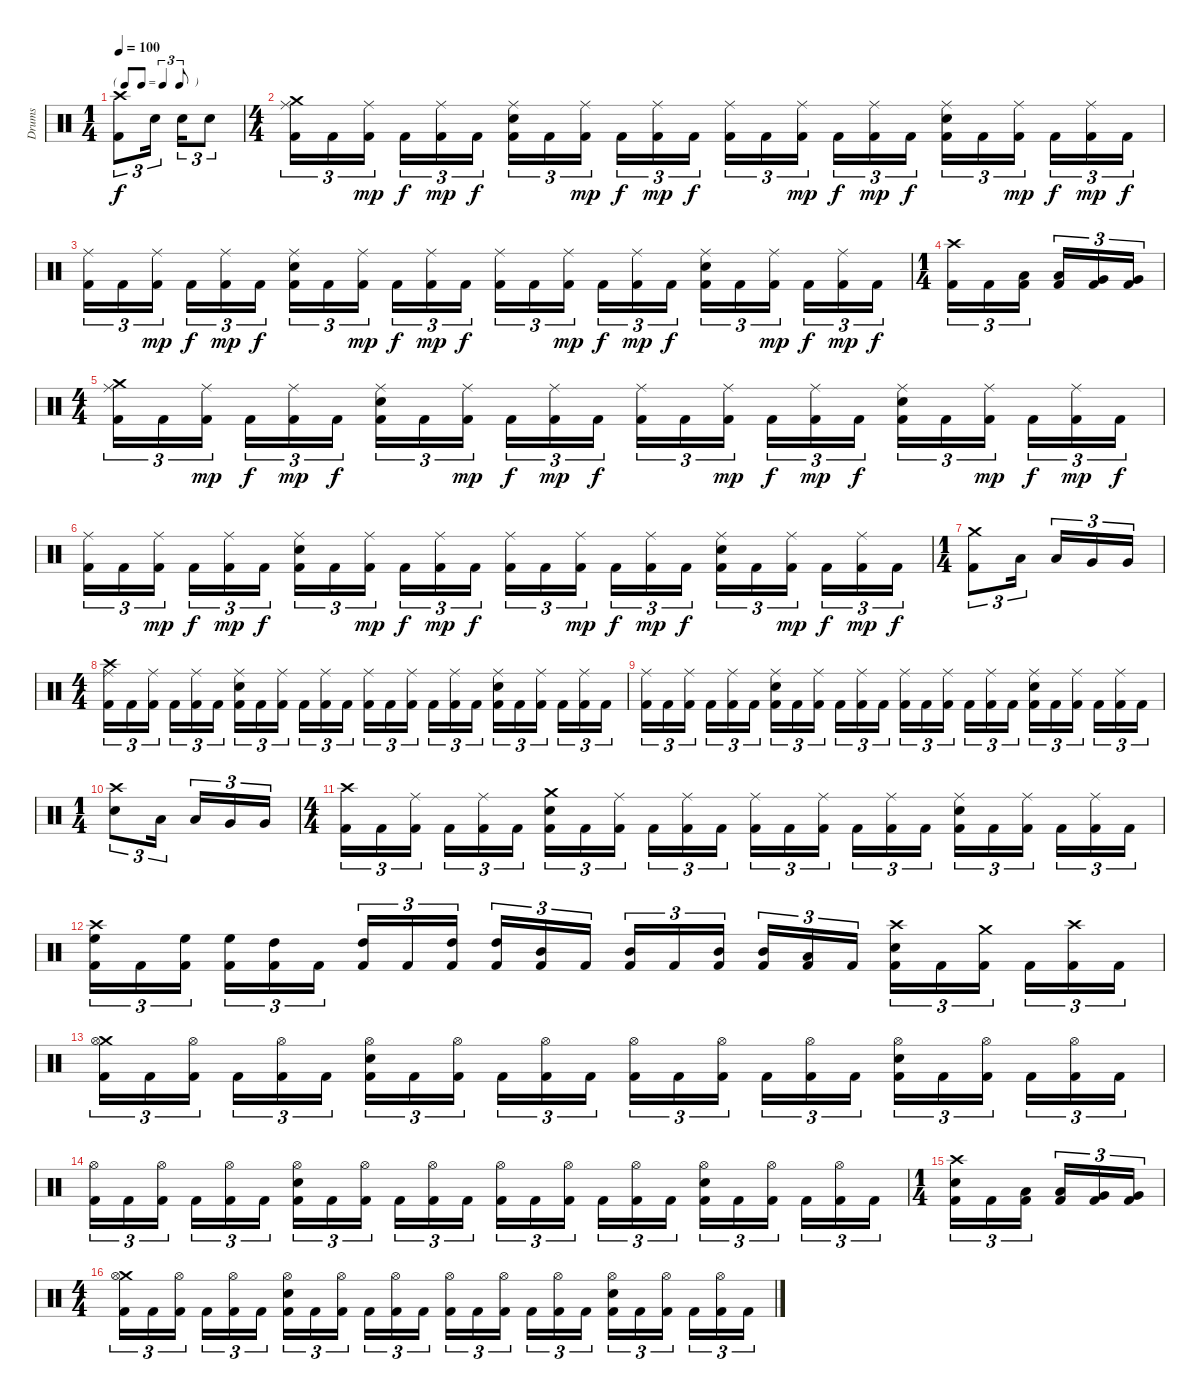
\track ("Drums" "Drums") {instrument percussion}
\staff {score}
\articulation defaults
\ts (1 4)
\tf triplet8th
\tempo 100
\clef neutral
\ks c
("Crash high (hit)" "Kick (hit) 2").8{tu (3 2) dy f} "Snare (hit) 2".16{tu (3 2) beam splitsecondary} "Snare (hit) 2".16{tu (3 2)} "Snare (hit) 2".8{tu (3 2)} |
\ts (4 4)
("Crash medium (hit)" "Ride (middle)" "Kick (hit) 2").16{tu (3 2)} "Kick (hit) 2".16{tu (3 2)} ("Ride (middle)" "Kick (hit) 2").16{tu (3 2) dy mp beam splitsecondary} "Kick (hit) 2".16{tu (3 2) dy f} ("Ride (middle)" "Kick (hit) 2").16{tu (3 2) dy mp} "Kick (hit) 2".16{tu (3 2) dy f} ("Ride (middle)" "Snare (hit) 2" "Kick (hit) 2").16{tu (3 2)} "Kick (hit) 2".16{tu (3 2)} ("Ride (middle)" "Kick (hit) 2").16{tu (3 2) dy mp beam splitsecondary} "Kick (hit) 2".16{tu (3 2) dy f} ("Ride (middle)" "Kick (hit) 2").16{tu (3 2) dy mp} "Kick (hit) 2".16{tu (3 2) dy f} ("Ride (middle)" "Kick (hit) 2").16{tu (3 2)} "Kick (hit) 2".16{tu (3 2)} ("Ride (middle)" "Kick (hit) 2").16{tu (3 2) dy mp beam splitsecondary} "Kick (hit) 2".16{tu (3 2) dy f} ("Ride (middle)" "Kick (hit) 2").16{tu (3 2) dy mp} "Kick (hit) 2".16{tu (3 2) dy f} ("Ride (middle)" "Snare (hit) 2" "Kick (hit) 2").16{tu (3 2)} "Kick (hit) 2".16{tu (3 2)} ("Ride (middle)" "Kick (hit) 2").16{tu (3 2) dy mp beam splitsecondary} "Kick (hit) 2".16{tu (3 2) dy f} ("Ride (middle)" "Kick (hit) 2").16{tu (3 2) dy mp} "Kick (hit) 2".16{tu (3 2) dy f} |
("Ride (middle)" "Kick (hit) 2").16{tu (3 2)} "Kick (hit) 2".16{tu (3 2)} ("Ride (middle)" "Kick (hit) 2").16{tu (3 2) dy mp beam splitsecondary} "Kick (hit) 2".16{tu (3 2) dy f} ("Ride (middle)" "Kick (hit) 2").16{tu (3 2) dy mp} "Kick (hit) 2".16{tu (3 2) dy f} ("Ride (middle)" "Snare (hit) 2" "Kick (hit) 2").16{tu (3 2)} "Kick (hit) 2".16{tu (3 2)} ("Ride (middle)" "Kick (hit) 2").16{tu (3 2) dy mp beam splitsecondary} "Kick (hit) 2".16{tu (3 2) dy f} ("Ride (middle)" "Kick (hit) 2").16{tu (3 2) dy mp} "Kick (hit) 2".16{tu (3 2) dy f} ("Ride (middle)" "Kick (hit) 2").16{tu (3 2)} "Kick (hit) 2".16{tu (3 2)} ("Ride (middle)" "Kick (hit) 2").16{tu (3 2) dy mp beam splitsecondary} "Kick (hit) 2".16{tu (3 2) dy f} ("Ride (middle)" "Kick (hit) 2").16{tu (3 2) dy mp} "Kick (hit) 2".16{tu (3 2) dy f} ("Ride (middle)" "Snare (hit) 2" "Kick (hit) 2").16{tu (3 2)} "Kick (hit) 2".16{tu (3 2)} ("Ride (middle)" "Kick (hit) 2").16{tu (3 2) dy mp beam splitsecondary} "Kick (hit) 2".16{tu (3 2) dy f} ("Ride (middle)" "Kick (hit) 2").16{tu (3 2) dy mp} "Kick (hit) 2".16{tu (3 2) dy f} |
\ts (1 4)
("Crash high (hit)" "Kick (hit) 2").16{tu (3 2)} "Kick (hit) 2".16{tu (3 2)} ("Low Tom (hit)" "Kick (hit) 2").16{tu (3 2) beam splitsecondary} ("Low Tom (hit)" "Kick (hit) 2").16{tu (3 2)} ("Very Low Tom (hit)" "Kick (hit) 2").16{tu (3 2)} ("Very Low Tom (hit)" "Kick (hit) 2").16{tu (3 2)} |
\ts (4 4)
("Crash medium (hit)" "Ride (middle)" "Kick (hit) 2").16{tu (3 2)} "Kick (hit) 2".16{tu (3 2)} ("Ride (middle)" "Kick (hit) 2").16{tu (3 2) dy mp beam splitsecondary} "Kick (hit) 2".16{tu (3 2) dy f} ("Ride (middle)" "Kick (hit) 2").16{tu (3 2) dy mp} "Kick (hit) 2".16{tu (3 2) dy f} ("Ride (middle)" "Snare (hit) 2" "Kick (hit) 2").16{tu (3 2)} "Kick (hit) 2".16{tu (3 2)} ("Ride (middle)" "Kick (hit) 2").16{tu (3 2) dy mp beam splitsecondary} "Kick (hit) 2".16{tu (3 2) dy f} ("Ride (middle)" "Kick (hit) 2").16{tu (3 2) dy mp} "Kick (hit) 2".16{tu (3 2) dy f} ("Ride (middle)" "Kick (hit) 2").16{tu (3 2)} "Kick (hit) 2".16{tu (3 2)} ("Ride (middle)" "Kick (hit) 2").16{tu (3 2) dy mp beam splitsecondary} "Kick (hit) 2".16{tu (3 2) dy f} ("Ride (middle)" "Kick (hit) 2").16{tu (3 2) dy mp} "Kick (hit) 2".16{tu (3 2) dy f} ("Ride (middle)" "Snare (hit) 2" "Kick (hit) 2").16{tu (3 2)} "Kick (hit) 2".16{tu (3 2)} ("Ride (middle)" "Kick (hit) 2").16{tu (3 2) dy mp beam splitsecondary} "Kick (hit) 2".16{tu (3 2) dy f} ("Ride (middle)" "Kick (hit) 2").16{tu (3 2) dy mp} "Kick (hit) 2".16{tu (3 2) dy f} |
("Ride (middle)" "Kick (hit) 2").16{tu (3 2)} "Kick (hit) 2".16{tu (3 2)} ("Ride (middle)" "Kick (hit) 2").16{tu (3 2) dy mp beam splitsecondary} "Kick (hit) 2".16{tu (3 2) dy f} ("Ride (middle)" "Kick (hit) 2").16{tu (3 2) dy mp} "Kick (hit) 2".16{tu (3 2) dy f} ("Ride (middle)" "Snare (hit) 2" "Kick (hit) 2").16{tu (3 2)} "Kick (hit) 2".16{tu (3 2)} ("Ride (middle)" "Kick (hit) 2").16{tu (3 2) dy mp beam splitsecondary} "Kick (hit) 2".16{tu (3 2) dy f} ("Ride (middle)" "Kick (hit) 2").16{tu (3 2) dy mp} "Kick (hit) 2".16{tu (3 2) dy f} ("Ride (middle)" "Kick (hit) 2").16{tu (3 2)} "Kick (hit) 2".16{tu (3 2)} ("Ride (middle)" "Kick (hit) 2").16{tu (3 2) dy mp beam splitsecondary} "Kick (hit) 2".16{tu (3 2) dy f} ("Ride (middle)" "Kick (hit) 2").16{tu (3 2) dy mp} "Kick (hit) 2".16{tu (3 2) dy f} ("Ride (middle)" "Snare (hit) 2" "Kick (hit) 2").16{tu (3 2)} "Kick (hit) 2".16{tu (3 2)} ("Ride (middle)" "Kick (hit) 2").16{tu (3 2) dy mp beam splitsecondary} "Kick (hit) 2".16{tu (3 2) dy f} ("Ride (middle)" "Kick (hit) 2").16{tu (3 2) dy mp} "Kick (hit) 2".16{tu (3 2) dy f} |
\ts (1 4)
("Crash medium (hit)" "Kick (hit) 2").8{tu (3 2)} "Low Tom (hit)".16{tu (3 2) beam splitsecondary} "Low Tom (hit)".16{tu (3 2)} "Very Low Tom (hit)".16{tu (3 2)} "Very Low Tom (hit)".16{tu (3 2)} |
\ts (4 4)
("Crash high (hit)" "Ride (middle)" "Kick (hit) 2").16{tu (3 2)} "Kick (hit) 2".16{tu (3 2)} ("Ride (middle)" "Kick (hit) 2").16{tu (3 2) beam splitsecondary} "Kick (hit) 2".16{tu (3 2)} ("Ride (middle)" "Kick (hit) 2").16{tu (3 2)} "Kick (hit) 2".16{tu (3 2)} ("Ride (middle)" "Snare (hit) 2" "Kick (hit) 2").16{tu (3 2)} "Kick (hit) 2".16{tu (3 2)} ("Ride (middle)" "Kick (hit) 2").16{tu (3 2) beam splitsecondary} "Kick (hit) 2".16{tu (3 2)} ("Ride (middle)" "Kick (hit) 2").16{tu (3 2)} "Kick (hit) 2".16{tu (3 2)} ("Ride (middle)" "Kick (hit) 2").16{tu (3 2)} "Kick (hit) 2".16{tu (3 2)} ("Ride (middle)" "Kick (hit) 2").16{tu (3 2) beam splitsecondary} "Kick (hit) 2".16{tu (3 2)} ("Ride (middle)" "Kick (hit) 2").16{tu (3 2)} "Kick (hit) 2".16{tu (3 2)} ("Ride (middle)" "Snare (hit) 2" "Kick (hit) 2").16{tu (3 2)} "Kick (hit) 2".16{tu (3 2)} ("Ride (middle)" "Kick (hit) 2").16{tu (3 2) beam splitsecondary} "Kick (hit) 2".16{tu (3 2)} ("Ride (middle)" "Kick (hit) 2").16{tu (3 2)} "Kick (hit) 2".16{tu (3 2)} |
("Ride (middle)" "Kick (hit) 2").16{tu (3 2)} "Kick (hit) 2".16{tu (3 2)} ("Ride (middle)" "Kick (hit) 2").16{tu (3 2) beam splitsecondary} "Kick (hit) 2".16{tu (3 2)} ("Ride (middle)" "Kick (hit) 2").16{tu (3 2)} "Kick (hit) 2".16{tu (3 2)} ("Ride (middle)" "Snare (hit) 2" "Kick (hit) 2").16{tu (3 2)} "Kick (hit) 2".16{tu (3 2)} ("Ride (middle)" "Kick (hit) 2").16{tu (3 2) beam splitsecondary} "Kick (hit) 2".16{tu (3 2)} ("Ride (middle)" "Kick (hit) 2").16{tu (3 2)} "Kick (hit) 2".16{tu (3 2)} ("Ride (middle)" "Kick (hit) 2").16{tu (3 2)} "Kick (hit) 2".16{tu (3 2)} ("Ride (middle)" "Kick (hit) 2").16{tu (3 2) beam splitsecondary} "Kick (hit) 2".16{tu (3 2)} ("Ride (middle)" "Kick (hit) 2").16{tu (3 2)} "Kick (hit) 2".16{tu (3 2)} ("Ride (middle)" "Snare (hit) 2" "Kick (hit) 2").16{tu (3 2)} "Kick (hit) 2".16{tu (3 2)} ("Ride (middle)" "Kick (hit) 2").16{tu (3 2) beam splitsecondary} "Kick (hit) 2".16{tu (3 2)} ("Ride (middle)" "Kick (hit) 2").16{tu (3 2)} "Kick (hit) 2".16{tu (3 2)} |
\ts (1 4)
("Crash high (hit)" "Snare (hit) 2").8{tu (3 2)} "Low Tom (hit)".16{tu (3 2) beam splitsecondary} "Low Tom (hit)".16{tu (3 2)} "Very Low Tom (hit)".16{tu (3 2)} "Very Low Tom (hit)".16{tu (3 2)} |
\ts (4 4)
("Crash high (hit)" "Kick (hit) 2").16{tu (3 2)} "Kick (hit) 2".16{tu (3 2)} ("Ride (middle)" "Kick (hit) 2").16{tu (3 2) beam splitsecondary} "Kick (hit) 2".16{tu (3 2)} ("Ride (middle)" "Kick (hit) 2").16{tu (3 2)} "Kick (hit) 2".16{tu (3 2)} ("Crash medium (hit)" "Snare (hit) 2" "Kick (hit) 2").16{tu (3 2)} "Kick (hit) 2".16{tu (3 2)} ("Ride (middle)" "Kick (hit) 2").16{tu (3 2) beam splitsecondary} "Kick (hit) 2".16{tu (3 2)} ("Ride (middle)" "Kick (hit) 2").16{tu (3 2)} "Kick (hit) 2".16{tu (3 2)} ("Ride (middle)" "Kick (hit) 2").16{tu (3 2)} "Kick (hit) 2".16{tu (3 2)} ("Ride (middle)" "Kick (hit) 2").16{tu (3 2) beam splitsecondary} "Kick (hit) 2".16{tu (3 2)} ("Ride (middle)" "Kick (hit) 2").16{tu (3 2)} "Kick (hit) 2".16{tu (3 2)} ("Ride (middle)" "Snare (hit) 2" "Kick (hit) 2").16{tu (3 2)} "Kick (hit) 2".16{tu (3 2)} ("Ride (middle)" "Kick (hit) 2").16{tu (3 2) beam splitsecondary} "Kick (hit) 2".16{tu (3 2)} ("Ride (middle)" "Kick (hit) 2").16{tu (3 2)} "Kick (hit) 2".16{tu (3 2)} |
("Crash high (hit)" "High Floor Tom (hit)" "Kick (hit) 2").16{tu (3 2)} "Kick (hit) 2".16{tu (3 2)} ("High Floor Tom (hit)" "Kick (hit) 2").16{tu (3 2) beam splitsecondary} ("High Floor Tom (hit)" "Kick (hit) 2").16{tu (3 2)} ("High Tom (hit)" "Kick (hit) 2").16{tu (3 2)} "Kick (hit) 2".16{tu (3 2)} ("High Tom (hit)" "Kick (hit) 2").16{tu (3 2)} "Kick (hit) 2".16{tu (3 2)} ("High Tom (hit)" "Kick (hit) 2").16{tu (3 2) beam splitsecondary} ("High Tom (hit)" "Kick (hit) 2").16{tu (3 2)} ("Mid Tom (hit)" "Kick (hit) 2").16{tu (3 2)} "Kick (hit) 2".16{tu (3 2)} ("Mid Tom (hit)" "Kick (hit) 2").16{tu (3 2)} "Kick (hit) 2".16{tu (3 2)} ("Mid Tom (hit)" "Kick (hit) 2").16{tu (3 2) beam splitsecondary} ("Mid Tom (hit)" "Kick (hit) 2").16{tu (3 2)} ("Low Tom (hit)" "Kick (hit) 2").16{tu (3 2)} "Kick (hit) 2".16{tu (3 2)} ("Crash high (hit)" "Snare (hit) 2" "Kick (hit) 2").16{tu (3 2)} "Kick (hit) 2".16{tu (3 2)} ("Crash medium (hit)" "Kick (hit) 2").16{tu (3 2) beam splitsecondary} "Kick (hit) 2".16{tu (3 2)} ("Crash high (hit)" "Kick (hit) 2").16{tu (3 2)} "Kick (hit) 2".16{tu (3 2)} |
("Crash medium (hit)" "Hi-Hat (open)" "Kick (hit) 2").16{tu (3 2)} "Kick (hit) 2".16{tu (3 2)} ("Hi-Hat (open)" "Kick (hit) 2").16{tu (3 2) beam splitsecondary} "Kick (hit) 2".16{tu (3 2)} ("Hi-Hat (open)" "Kick (hit) 2").16{tu (3 2)} "Kick (hit) 2".16{tu (3 2)} ("Hi-Hat (open)" "Snare (hit) 2" "Kick (hit) 2").16{tu (3 2)} "Kick (hit) 2".16{tu (3 2)} ("Hi-Hat (open)" "Kick (hit) 2").16{tu (3 2) beam splitsecondary} "Kick (hit) 2".16{tu (3 2)} ("Hi-Hat (open)" "Kick (hit) 2").16{tu (3 2)} "Kick (hit) 2".16{tu (3 2)} ("Hi-Hat (open)" "Kick (hit) 2").16{tu (3 2)} "Kick (hit) 2".16{tu (3 2)} ("Hi-Hat (open)" "Kick (hit) 2").16{tu (3 2) beam splitsecondary} "Kick (hit) 2".16{tu (3 2)} ("Hi-Hat (open)" "Kick (hit) 2").16{tu (3 2)} "Kick (hit) 2".16{tu (3 2)} ("Hi-Hat (open)" "Snare (hit) 2" "Kick (hit) 2").16{tu (3 2)} "Kick (hit) 2".16{tu (3 2)} ("Hi-Hat (open)" "Kick (hit) 2").16{tu (3 2) beam splitsecondary} "Kick (hit) 2".16{tu (3 2)} ("Hi-Hat (open)" "Kick (hit) 2").16{tu (3 2)} "Kick (hit) 2".16{tu (3 2)} |
("Hi-Hat (open)" "Kick (hit) 2").16{tu (3 2)} "Kick (hit) 2".16{tu (3 2)} ("Hi-Hat (open)" "Kick (hit) 2").16{tu (3 2) beam splitsecondary} "Kick (hit) 2".16{tu (3 2)} ("Hi-Hat (open)" "Kick (hit) 2").16{tu (3 2)} "Kick (hit) 2".16{tu (3 2)} ("Hi-Hat (open)" "Snare (hit) 2" "Kick (hit) 2").16{tu (3 2)} "Kick (hit) 2".16{tu (3 2)} ("Hi-Hat (open)" "Kick (hit) 2").16{tu (3 2) beam splitsecondary} "Kick (hit) 2".16{tu (3 2)} ("Hi-Hat (open)" "Kick (hit) 2").16{tu (3 2)} "Kick (hit) 2".16{tu (3 2)} ("Hi-Hat (open)" "Kick (hit) 2").16{tu (3 2)} "Kick (hit) 2".16{tu (3 2)} ("Hi-Hat (open)" "Kick (hit) 2").16{tu (3 2) beam splitsecondary} "Kick (hit) 2".16{tu (3 2)} ("Hi-Hat (open)" "Kick (hit) 2").16{tu (3 2)} "Kick (hit) 2".16{tu (3 2)} ("Hi-Hat (open)" "Snare (hit) 2" "Kick (hit) 2").16{tu (3 2)} "Kick (hit) 2".16{tu (3 2)} ("Hi-Hat (open)" "Kick (hit) 2").16{tu (3 2) beam splitsecondary} "Kick (hit) 2".16{tu (3 2)} ("Hi-Hat (open)" "Kick (hit) 2").16{tu (3 2)} "Kick (hit) 2".16{tu (3 2)} |
\ts (1 4)
("Crash high (hit)" "Snare (hit) 2" "Kick (hit) 2").16{tu (3 2)} "Kick (hit) 2".16{tu (3 2)} ("Low Tom (hit)" "Kick (hit) 2").16{tu (3 2) beam splitsecondary} ("Low Tom (hit)" "Kick (hit) 2").16{tu (3 2)} ("Very Low Tom (hit)" "Kick (hit) 2").16{tu (3 2)} ("Very Low Tom (hit)" "Kick (hit) 2").16{tu (3 2)} |
\ts (4 4)
("Crash medium (hit)" "Hi-Hat (open)" "Kick (hit) 2").16{tu (3 2)} "Kick (hit) 2".16{tu (3 2)} ("Hi-Hat (open)" "Kick (hit) 2").16{tu (3 2) beam splitsecondary} "Kick (hit) 2".16{tu (3 2)} ("Hi-Hat (open)" "Kick (hit) 2").16{tu (3 2)} "Kick (hit) 2".16{tu (3 2)} ("Hi-Hat (open)" "Snare (hit) 2" "Kick (hit) 2").16{tu (3 2)} "Kick (hit) 2".16{tu (3 2)} ("Hi-Hat (open)" "Kick (hit) 2").16{tu (3 2) beam splitsecondary} "Kick (hit) 2".16{tu (3 2)} ("Hi-Hat (open)" "Kick (hit) 2").16{tu (3 2)} "Kick (hit) 2".16{tu (3 2)} ("Hi-Hat (open)" "Kick (hit) 2").16{tu (3 2)} "Kick (hit) 2".16{tu (3 2)} ("Hi-Hat (open)" "Kick (hit) 2").16{tu (3 2) beam splitsecondary} "Kick (hit) 2".16{tu (3 2)} ("Hi-Hat (open)" "Kick (hit) 2").16{tu (3 2)} "Kick (hit) 2".16{tu (3 2)} ("Hi-Hat (open)" "Snare (hit) 2" "Kick (hit) 2").16{tu (3 2)} "Kick (hit) 2".16{tu (3 2)} ("Hi-Hat (open)" "Kick (hit) 2").16{tu (3 2) beam splitsecondary} "Kick (hit) 2".16{tu (3 2)} ("Hi-Hat (open)" "Kick (hit) 2").16{tu (3 2)} "Kick (hit) 2".16{tu (3 2)}
